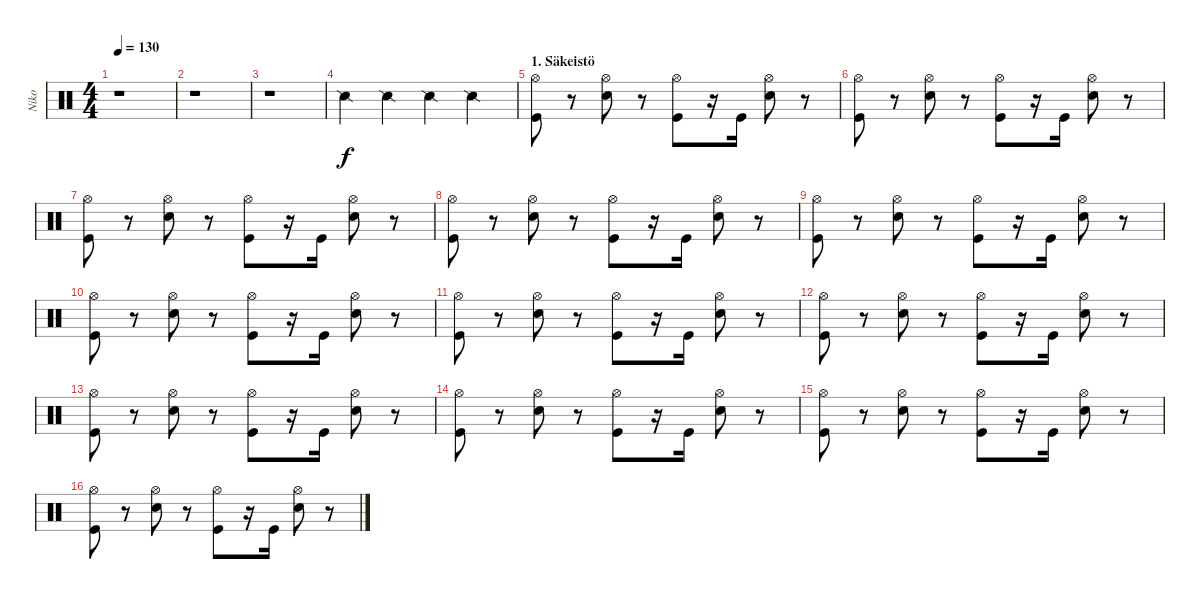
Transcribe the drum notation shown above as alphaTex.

\track ("Niko" "Niko") {instrument percussion}
\staff {score}
\articulation defaults
\ts (4 4)
\tempo 130
\clef neutral
\ks c
r.1{dy f} |
r.1 |
r.1 |
"Snare (side stick) 2".4 "Snare (side stick) 2".4 "Snare (side stick) 2".4 "Snare (side stick) 2".4 |
\section ("" "1. Säkeistö")
("Kick (hit)" "Hi-Hat (open)").8 r.8 ("Snare (hit) 2" "Hi-Hat (open)").8 r.8 ("Kick (hit)" "Hi-Hat (open)").8 r.16 "Kick (hit)".16 ("Snare (hit) 2" "Hi-Hat (open)").8 r.8 |
("Kick (hit)" "Hi-Hat (open)").8 r.8 ("Snare (hit) 2" "Hi-Hat (open)").8 r.8 ("Kick (hit)" "Hi-Hat (open)").8 r.16 "Kick (hit)".16 ("Snare (hit) 2" "Hi-Hat (open)").8 r.8 |
("Kick (hit)" "Hi-Hat (open)").8 r.8 ("Snare (hit) 2" "Hi-Hat (open)").8 r.8 ("Kick (hit)" "Hi-Hat (open)").8 r.16 "Kick (hit)".16 ("Snare (hit) 2" "Hi-Hat (open)").8 r.8 |
("Kick (hit)" "Hi-Hat (open)").8 r.8 ("Snare (hit) 2" "Hi-Hat (open)").8 r.8 ("Kick (hit)" "Hi-Hat (open)").8 r.16 "Kick (hit)".16 ("Snare (hit) 2" "Hi-Hat (open)").8 r.8 |
("Kick (hit)" "Hi-Hat (open)").8 r.8 ("Snare (hit) 2" "Hi-Hat (open)").8 r.8 ("Kick (hit)" "Hi-Hat (open)").8 r.16 "Kick (hit)".16 ("Snare (hit) 2" "Hi-Hat (open)").8 r.8 |
("Kick (hit)" "Hi-Hat (open)").8 r.8 ("Snare (hit) 2" "Hi-Hat (open)").8 r.8 ("Kick (hit)" "Hi-Hat (open)").8 r.16 "Kick (hit)".16 ("Snare (hit) 2" "Hi-Hat (open)").8 r.8 |
("Kick (hit)" "Hi-Hat (open)").8 r.8 ("Snare (hit) 2" "Hi-Hat (open)").8 r.8 ("Kick (hit)" "Hi-Hat (open)").8 r.16 "Kick (hit)".16 ("Snare (hit) 2" "Hi-Hat (open)").8 r.8 |
("Kick (hit)" "Hi-Hat (open)").8 r.8 ("Snare (hit) 2" "Hi-Hat (open)").8 r.8 ("Kick (hit)" "Hi-Hat (open)").8 r.16 "Kick (hit)".16 ("Snare (hit) 2" "Hi-Hat (open)").8 r.8 |
("Kick (hit)" "Hi-Hat (open)").8 r.8 ("Snare (hit) 2" "Hi-Hat (open)").8 r.8 ("Kick (hit)" "Hi-Hat (open)").8 r.16 "Kick (hit)".16 ("Snare (hit) 2" "Hi-Hat (open)").8 r.8 |
("Kick (hit)" "Hi-Hat (open)").8 r.8 ("Snare (hit) 2" "Hi-Hat (open)").8 r.8 ("Kick (hit)" "Hi-Hat (open)").8 r.16 "Kick (hit)".16 ("Snare (hit) 2" "Hi-Hat (open)").8 r.8 |
("Kick (hit)" "Hi-Hat (open)").8 r.8 ("Snare (hit) 2" "Hi-Hat (open)").8 r.8 ("Kick (hit)" "Hi-Hat (open)").8 r.16 "Kick (hit)".16 ("Snare (hit) 2" "Hi-Hat (open)").8 r.8 |
("Kick (hit)" "Hi-Hat (open)").8 r.8 ("Snare (hit) 2" "Hi-Hat (open)").8 r.8 ("Kick (hit)" "Hi-Hat (open)").8 r.16 "Kick (hit)".16 ("Snare (hit) 2" "Hi-Hat (open)").8 r.8
